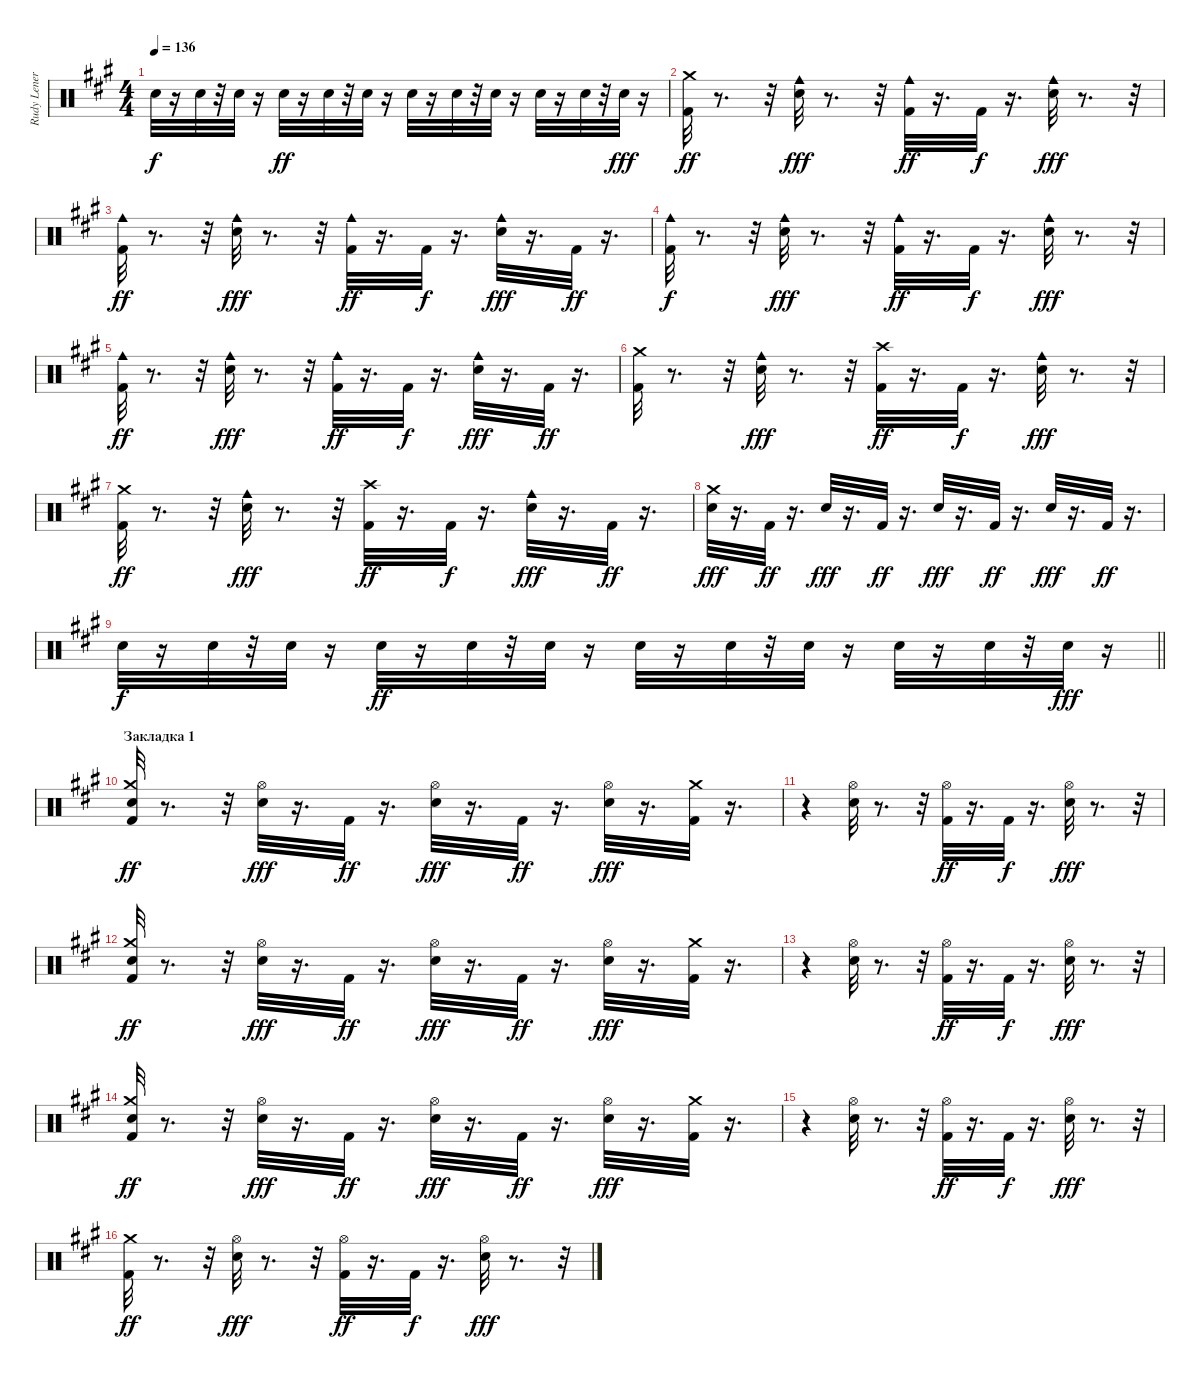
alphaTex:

\track ("Rudy Leners" "Rudy Lener") {instrument percussion}
\staff {score}
\articulation defaults
\ts (4 4)
\tempo 136
\clef neutral
\ks a "Snare (hit) 2".32{dy f}
r.16 "Snare (hit) 2".32 r.32 "Snare (hit) 2".32 r.16 "Snare (hit) 2".32{dy ff} r.16 "Snare (hit) 2".32 r.32 "Snare (hit) 2".32 r.16 "Snare (hit) 2".32 r.16 "Snare (hit) 2".32 r.32 "Snare (hit) 2".32 r.16 "Snare (hit) 2".32 r.16 "Snare (hit) 2".32 r.32 "Snare (hit) 2".32{dy fff} r.16 |
("Crash medium (hit)" "Kick (hit) 2").32{dy ff} r.8{d} r.32 ("Snare (hit) 2" "Cowbell medium (hit)").32{dy fff} r.8{d} r.32 ("Kick (hit) 2" "Cowbell medium (hit)").32{dy ff} r.16{d} "Kick (hit) 2".32{dy f} r.16{d} ("Snare (hit) 2" "Cowbell medium (hit)").32{dy fff} r.8{d} r.32 |
("Cowbell medium (hit)" "Kick (hit) 2").32{dy ff} r.8{d} r.32 ("Cowbell medium (hit)" "Snare (hit) 2").32{dy fff} r.8{d} r.32 ("Cowbell medium (hit)" "Kick (hit) 2").32{dy ff} r.16{d} "Kick (hit) 2".32{dy f} r.16{d} ("Cowbell medium (hit)" "Snare (hit) 2").32{dy fff} r.16{d} "Kick (hit) 2".32{dy ff} r.16{d} |
("Kick (hit) 2" "Cowbell medium (hit)").32{dy f} r.8{d} r.32 ("Snare (hit) 2" "Cowbell medium (hit)").32{dy fff} r.8{d} r.32 ("Kick (hit) 2" "Cowbell medium (hit)").32{dy ff} r.16{d} "Kick (hit) 2".32{dy f} r.16{d} ("Snare (hit) 2" "Cowbell medium (hit)").32{dy fff} r.8{d} r.32 |
("Cowbell medium (hit)" "Kick (hit) 2").32{dy ff} r.8{d} r.32 ("Cowbell medium (hit)" "Snare (hit) 2").32{dy fff} r.8{d} r.32 ("Cowbell medium (hit)" "Kick (hit) 2").32{dy ff} r.16{d} "Kick (hit) 2".32{dy f} r.16{d} ("Cowbell medium (hit)" "Snare (hit) 2").32{dy fff} r.16{d} "Kick (hit) 2".32{dy ff} r.16{d} |
("Crash medium (hit)" "Kick (hit) 2").32 r.8{d} r.32 ("Snare (hit) 2" "Cowbell medium (hit)").32{dy fff} r.8{d} r.32 ("Crash high (hit)" "Kick (hit) 2").32{dy ff} r.16{d} "Kick (hit) 2".32{dy f} r.16{d} ("Snare (hit) 2" "Cowbell medium (hit)").32{dy fff} r.8{d} r.32 |
("Crash medium (hit)" "Kick (hit) 2").32{dy ff} r.8{d} r.32 ("Cowbell medium (hit)" "Snare (hit) 2").32{dy fff} r.8{d} r.32 ("Crash high (hit)" "Kick (hit) 2").32{dy ff} r.16{d} "Kick (hit) 2".32{dy f} r.16{d} ("Cowbell medium (hit)" "Snare (hit) 2").32{dy fff} r.16{d} "Kick (hit) 2".32{dy ff} r.16{d} |
("Crash medium (hit)" "Snare (hit) 2").32{dy fff} r.16{d} "Kick (hit) 2".32{dy ff} r.16{d} "Snare (hit) 2".32{dy fff} r.16{d} "Kick (hit) 2".32{dy ff} r.16{d} "Snare (hit) 2".32{dy fff} r.16{d} "Kick (hit) 2".32{dy ff} r.16{d} "Snare (hit) 2".32{dy fff} r.16{d} "Kick (hit) 2".32{dy ff} r.16{d} |
\barLineRight lightlight "Snare (hit) 2".32{dy f}
r.16 "Snare (hit) 2".32 r.32 "Snare (hit) 2".32 r.16 "Snare (hit) 2".32{dy ff} r.16 "Snare (hit) 2".32 r.32 "Snare (hit) 2".32 r.16 "Snare (hit) 2".32 r.16 "Snare (hit) 2".32 r.32 "Snare (hit) 2".32 r.16 "Snare (hit) 2".32 r.16 "Snare (hit) 2".32 r.32 "Snare (hit) 2".32{dy fff} r.16 |
\section ("" "Закладка 1")
("Snare (hit) 2" "Crash medium (hit)" "Kick (hit) 2").32{dy ff} r.8{d} r.32 ("Hi-Hat (open)" "Snare (hit) 2").32{dy fff} r.16{d} "Kick (hit) 2".32{dy ff} r.16{d} ("Hi-Hat (open)" "Snare (hit) 2").32{dy fff} r.16{d} "Kick (hit) 2".32{dy ff} r.16{d} ("Hi-Hat (open)" "Snare (hit) 2").32{dy fff} r.16{d} ("Kick (hit) 2" "Crash medium (hit)").32 r.16{d} |
r.4 ("Hi-Hat (open)" "Snare (hit) 2").32 r.8{d} r.32 ("Hi-Hat (open)" "Kick (hit) 2").32{dy ff} r.16{d} "Kick (hit) 2".32{dy f} r.16{d} ("Hi-Hat (open)" "Snare (hit) 2").32{dy fff} r.8{d} r.32 |
("Snare (hit) 2" "Crash medium (hit)" "Kick (hit) 2").32{dy ff} r.8{d} r.32 ("Hi-Hat (open)" "Snare (hit) 2").32{dy fff} r.16{d} "Kick (hit) 2".32{dy ff} r.16{d} ("Hi-Hat (open)" "Snare (hit) 2").32{dy fff} r.16{d} "Kick (hit) 2".32{dy ff} r.16{d} ("Hi-Hat (open)" "Snare (hit) 2").32{dy fff} r.16{d} ("Kick (hit) 2" "Crash medium (hit)").32 r.16{d} |
r.4 ("Hi-Hat (open)" "Snare (hit) 2").32 r.8{d} r.32 ("Hi-Hat (open)" "Kick (hit) 2").32{dy ff} r.16{d} "Kick (hit) 2".32{dy f} r.16{d} ("Hi-Hat (open)" "Snare (hit) 2").32{dy fff} r.8{d} r.32 |
("Snare (hit) 2" "Crash medium (hit)" "Kick (hit) 2").32{dy ff} r.8{d} r.32 ("Hi-Hat (open)" "Snare (hit) 2").32{dy fff} r.16{d} "Kick (hit) 2".32{dy ff} r.16{d} ("Hi-Hat (open)" "Snare (hit) 2").32{dy fff} r.16{d} "Kick (hit) 2".32{dy ff} r.16{d} ("Hi-Hat (open)" "Snare (hit) 2").32{dy fff} r.16{d} ("Kick (hit) 2" "Crash medium (hit)").32 r.16{d} |
r.4 ("Hi-Hat (open)" "Snare (hit) 2").32 r.8{d} r.32 ("Hi-Hat (open)" "Kick (hit) 2").32{dy ff} r.16{d} "Kick (hit) 2".32{dy f} r.16{d} ("Hi-Hat (open)" "Snare (hit) 2").32{dy fff} r.8{d} r.32 |
("Crash medium (hit)" "Kick (hit) 2").32{dy ff} r.8{d} r.32 ("Hi-Hat (open)" "Snare (hit) 2").32{dy fff} r.8{d} r.32 ("Hi-Hat (open)" "Kick (hit) 2").32{dy ff} r.16{d} "Kick (hit) 2".32{dy f} r.16{d} ("Hi-Hat (open)" "Snare (hit) 2").32{dy fff} r.8{d} r.32
